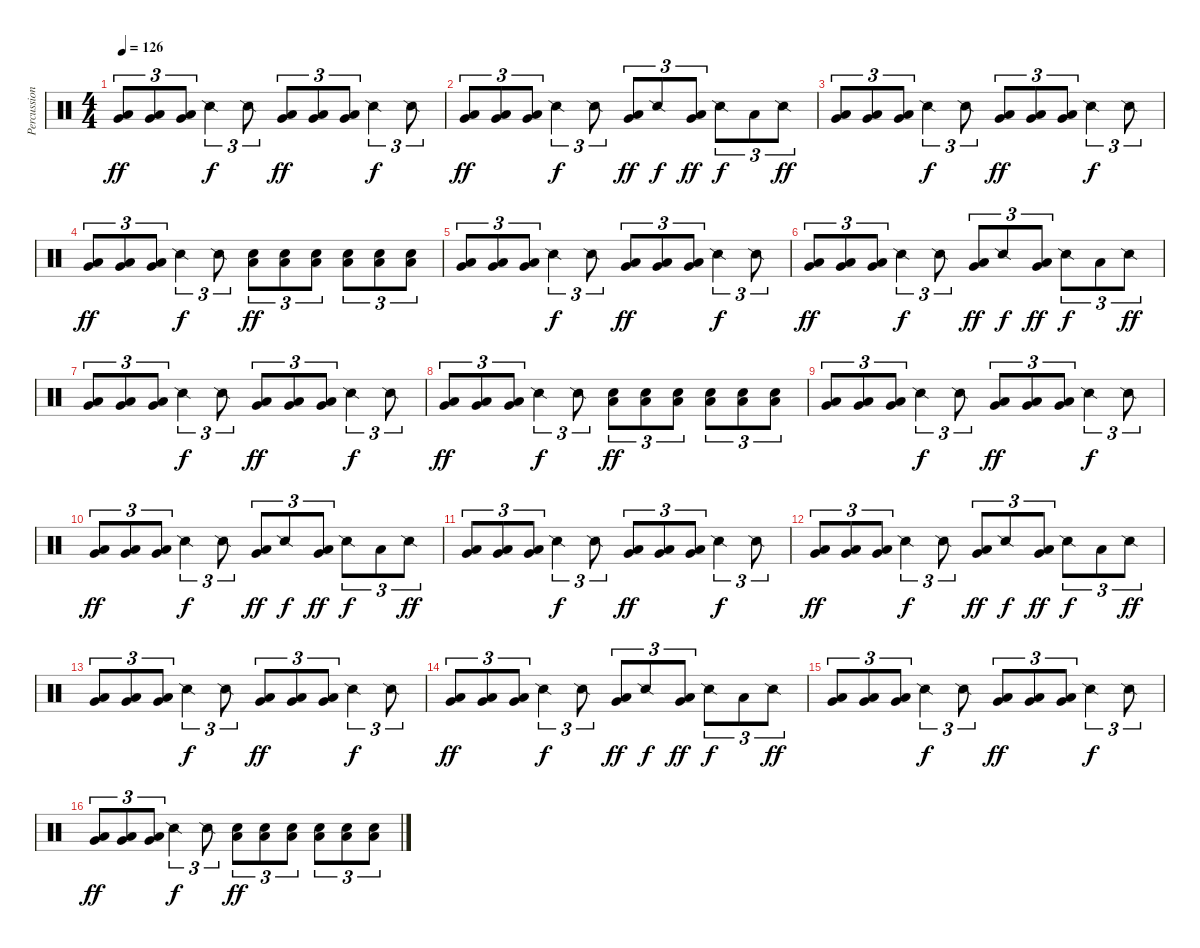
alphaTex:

\track ("Percussion" "Percussion") {instrument percussion}
\staff {score}
\articulation defaults
\ts (4 4)
\tempo 126
\clef neutral
\ks c
("Very Low Tom (hit)" "Low Floor Tom (hit)").8{tu (3 2) dy ff} ("Very Low Tom (hit)" "Low Floor Tom (hit)").8{tu (3 2)} ("Very Low Tom (hit)" "Low Floor Tom (hit)").8{tu (3 2)} "Snare (side stick) 2".4{tu (3 2) dy f} "Snare (side stick) 2".8{tu (3 2)} ("Very Low Tom (hit)" "Low Floor Tom (hit)").8{tu (3 2) dy ff} ("Very Low Tom (hit)" "Low Floor Tom (hit)").8{tu (3 2)} ("Very Low Tom (hit)" "Low Floor Tom (hit)").8{tu (3 2)} "Snare (side stick) 2".4{tu (3 2) dy f} "Snare (side stick) 2".8{tu (3 2)} |
("Very Low Tom (hit)" "Low Floor Tom (hit)").8{tu (3 2) dy ff} ("Very Low Tom (hit)" "Low Floor Tom (hit)").8{tu (3 2)} ("Very Low Tom (hit)" "Low Floor Tom (hit)").8{tu (3 2)} "Snare (side stick) 2".4{tu (3 2) dy f} "Snare (side stick) 2".8{tu (3 2)} ("Very Low Tom (hit)" "Low Floor Tom (hit)").8{tu (3 2) dy ff} "Snare (side stick) 2".8{tu (3 2) dy f} ("Very Low Tom (hit)" "Low Floor Tom (hit)").8{tu (3 2) dy ff} "Snare (side stick) 2".8{tu (3 2) dy f} "Low Floor Tom (hit)".8{tu (3 2)} "Snare (side stick) 2".8{tu (3 2) dy ff} |
("Very Low Tom (hit)" "Low Floor Tom (hit)").8{tu (3 2)} ("Very Low Tom (hit)" "Low Floor Tom (hit)").8{tu (3 2)} ("Very Low Tom (hit)" "Low Floor Tom (hit)").8{tu (3 2)} "Snare (side stick) 2".4{tu (3 2) dy f} "Snare (side stick) 2".8{tu (3 2)} ("Very Low Tom (hit)" "Low Floor Tom (hit)").8{tu (3 2) dy ff} ("Very Low Tom (hit)" "Low Floor Tom (hit)").8{tu (3 2)} ("Very Low Tom (hit)" "Low Floor Tom (hit)").8{tu (3 2)} "Snare (side stick) 2".4{tu (3 2) dy f} "Snare (side stick) 2".8{tu (3 2)} |
("Very Low Tom (hit)" "Low Floor Tom (hit)").8{tu (3 2) dy ff} ("Very Low Tom (hit)" "Low Floor Tom (hit)").8{tu (3 2)} ("Very Low Tom (hit)" "Low Floor Tom (hit)").8{tu (3 2)} "Snare (side stick) 2".4{tu (3 2) dy f} "Snare (side stick) 2".8{tu (3 2)} ("Electric Snare (hit)" "Low Floor Tom (hit)").8{tu (3 2) dy ff} ("Electric Snare (hit)" "Low Floor Tom (hit)").8{tu (3 2)} ("Electric Snare (hit)" "Low Floor Tom (hit)").8{tu (3 2)} ("Electric Snare (hit)" "Low Floor Tom (hit)").8{tu (3 2)} ("Electric Snare (hit)" "Low Floor Tom (hit)").8{tu (3 2)} ("Electric Snare (hit)" "Low Floor Tom (hit)").8{tu (3 2)} |
("Very Low Tom (hit)" "Low Floor Tom (hit)").8{tu (3 2)} ("Very Low Tom (hit)" "Low Floor Tom (hit)").8{tu (3 2)} ("Very Low Tom (hit)" "Low Floor Tom (hit)").8{tu (3 2)} "Snare (side stick) 2".4{tu (3 2) dy f} "Snare (side stick) 2".8{tu (3 2)} ("Very Low Tom (hit)" "Low Floor Tom (hit)").8{tu (3 2) dy ff} ("Very Low Tom (hit)" "Low Floor Tom (hit)").8{tu (3 2)} ("Very Low Tom (hit)" "Low Floor Tom (hit)").8{tu (3 2)} "Snare (side stick) 2".4{tu (3 2) dy f} "Snare (side stick) 2".8{tu (3 2)} |
("Very Low Tom (hit)" "Low Floor Tom (hit)").8{tu (3 2) dy ff} ("Very Low Tom (hit)" "Low Floor Tom (hit)").8{tu (3 2)} ("Very Low Tom (hit)" "Low Floor Tom (hit)").8{tu (3 2)} "Snare (side stick) 2".4{tu (3 2) dy f} "Snare (side stick) 2".8{tu (3 2)} ("Very Low Tom (hit)" "Low Floor Tom (hit)").8{tu (3 2) dy ff} "Snare (side stick) 2".8{tu (3 2) dy f} ("Very Low Tom (hit)" "Low Floor Tom (hit)").8{tu (3 2) dy ff} "Snare (side stick) 2".8{tu (3 2) dy f} "Low Floor Tom (hit)".8{tu (3 2)} "Snare (side stick) 2".8{tu (3 2) dy ff} |
("Very Low Tom (hit)" "Low Floor Tom (hit)").8{tu (3 2)} ("Very Low Tom (hit)" "Low Floor Tom (hit)").8{tu (3 2)} ("Very Low Tom (hit)" "Low Floor Tom (hit)").8{tu (3 2)} "Snare (side stick) 2".4{tu (3 2) dy f} "Snare (side stick) 2".8{tu (3 2)} ("Very Low Tom (hit)" "Low Floor Tom (hit)").8{tu (3 2) dy ff} ("Very Low Tom (hit)" "Low Floor Tom (hit)").8{tu (3 2)} ("Very Low Tom (hit)" "Low Floor Tom (hit)").8{tu (3 2)} "Snare (side stick) 2".4{tu (3 2) dy f} "Snare (side stick) 2".8{tu (3 2)} |
("Very Low Tom (hit)" "Low Floor Tom (hit)").8{tu (3 2) dy ff} ("Very Low Tom (hit)" "Low Floor Tom (hit)").8{tu (3 2)} ("Very Low Tom (hit)" "Low Floor Tom (hit)").8{tu (3 2)} "Snare (side stick) 2".4{tu (3 2) dy f} "Snare (side stick) 2".8{tu (3 2)} ("Electric Snare (hit)" "Low Floor Tom (hit)").8{tu (3 2) dy ff} ("Electric Snare (hit)" "Low Floor Tom (hit)").8{tu (3 2)} ("Electric Snare (hit)" "Low Floor Tom (hit)").8{tu (3 2)} ("Electric Snare (hit)" "Low Floor Tom (hit)").8{tu (3 2)} ("Electric Snare (hit)" "Low Floor Tom (hit)").8{tu (3 2)} ("Electric Snare (hit)" "Low Floor Tom (hit)").8{tu (3 2)} |
("Very Low Tom (hit)" "Low Floor Tom (hit)").8{tu (3 2)} ("Very Low Tom (hit)" "Low Floor Tom (hit)").8{tu (3 2)} ("Very Low Tom (hit)" "Low Floor Tom (hit)").8{tu (3 2)} "Snare (side stick) 2".4{tu (3 2) dy f} "Snare (side stick) 2".8{tu (3 2)} ("Very Low Tom (hit)" "Low Floor Tom (hit)").8{tu (3 2) dy ff} ("Very Low Tom (hit)" "Low Floor Tom (hit)").8{tu (3 2)} ("Very Low Tom (hit)" "Low Floor Tom (hit)").8{tu (3 2)} "Snare (side stick) 2".4{tu (3 2) dy f} "Snare (side stick) 2".8{tu (3 2)} |
("Very Low Tom (hit)" "Low Floor Tom (hit)").8{tu (3 2) dy ff} ("Very Low Tom (hit)" "Low Floor Tom (hit)").8{tu (3 2)} ("Very Low Tom (hit)" "Low Floor Tom (hit)").8{tu (3 2)} "Snare (side stick) 2".4{tu (3 2) dy f} "Snare (side stick) 2".8{tu (3 2)} ("Very Low Tom (hit)" "Low Floor Tom (hit)").8{tu (3 2) dy ff} "Snare (side stick) 2".8{tu (3 2) dy f} ("Very Low Tom (hit)" "Low Floor Tom (hit)").8{tu (3 2) dy ff} "Snare (side stick) 2".8{tu (3 2) dy f} "Low Floor Tom (hit)".8{tu (3 2)} "Snare (side stick) 2".8{tu (3 2) dy ff} |
("Very Low Tom (hit)" "Low Floor Tom (hit)").8{tu (3 2)} ("Very Low Tom (hit)" "Low Floor Tom (hit)").8{tu (3 2)} ("Very Low Tom (hit)" "Low Floor Tom (hit)").8{tu (3 2)} "Snare (side stick) 2".4{tu (3 2) dy f} "Snare (side stick) 2".8{tu (3 2)} ("Very Low Tom (hit)" "Low Floor Tom (hit)").8{tu (3 2) dy ff} ("Very Low Tom (hit)" "Low Floor Tom (hit)").8{tu (3 2)} ("Very Low Tom (hit)" "Low Floor Tom (hit)").8{tu (3 2)} "Snare (side stick) 2".4{tu (3 2) dy f} "Snare (side stick) 2".8{tu (3 2)} |
("Very Low Tom (hit)" "Low Floor Tom (hit)").8{tu (3 2) dy ff} ("Very Low Tom (hit)" "Low Floor Tom (hit)").8{tu (3 2)} ("Very Low Tom (hit)" "Low Floor Tom (hit)").8{tu (3 2)} "Snare (side stick) 2".4{tu (3 2) dy f} "Snare (side stick) 2".8{tu (3 2)} ("Very Low Tom (hit)" "Low Floor Tom (hit)").8{tu (3 2) dy ff} "Snare (side stick) 2".8{tu (3 2) dy f} ("Very Low Tom (hit)" "Low Floor Tom (hit)").8{tu (3 2) dy ff} "Snare (side stick) 2".8{tu (3 2) dy f} "Low Floor Tom (hit)".8{tu (3 2)} "Snare (side stick) 2".8{tu (3 2) dy ff} |
("Very Low Tom (hit)" "Low Floor Tom (hit)").8{tu (3 2)} ("Very Low Tom (hit)" "Low Floor Tom (hit)").8{tu (3 2)} ("Very Low Tom (hit)" "Low Floor Tom (hit)").8{tu (3 2)} "Snare (side stick) 2".4{tu (3 2) dy f} "Snare (side stick) 2".8{tu (3 2)} ("Very Low Tom (hit)" "Low Floor Tom (hit)").8{tu (3 2) dy ff} ("Very Low Tom (hit)" "Low Floor Tom (hit)").8{tu (3 2)} ("Very Low Tom (hit)" "Low Floor Tom (hit)").8{tu (3 2)} "Snare (side stick) 2".4{tu (3 2) dy f} "Snare (side stick) 2".8{tu (3 2)} |
("Very Low Tom (hit)" "Low Floor Tom (hit)").8{tu (3 2) dy ff} ("Very Low Tom (hit)" "Low Floor Tom (hit)").8{tu (3 2)} ("Very Low Tom (hit)" "Low Floor Tom (hit)").8{tu (3 2)} "Snare (side stick) 2".4{tu (3 2) dy f} "Snare (side stick) 2".8{tu (3 2)} ("Very Low Tom (hit)" "Low Floor Tom (hit)").8{tu (3 2) dy ff} "Snare (side stick) 2".8{tu (3 2) dy f} ("Very Low Tom (hit)" "Low Floor Tom (hit)").8{tu (3 2) dy ff} "Snare (side stick) 2".8{tu (3 2) dy f} "Low Floor Tom (hit)".8{tu (3 2)} "Snare (side stick) 2".8{tu (3 2) dy ff} |
("Very Low Tom (hit)" "Low Floor Tom (hit)").8{tu (3 2)} ("Very Low Tom (hit)" "Low Floor Tom (hit)").8{tu (3 2)} ("Very Low Tom (hit)" "Low Floor Tom (hit)").8{tu (3 2)} "Snare (side stick) 2".4{tu (3 2) dy f} "Snare (side stick) 2".8{tu (3 2)} ("Very Low Tom (hit)" "Low Floor Tom (hit)").8{tu (3 2) dy ff} ("Very Low Tom (hit)" "Low Floor Tom (hit)").8{tu (3 2)} ("Very Low Tom (hit)" "Low Floor Tom (hit)").8{tu (3 2)} "Snare (side stick) 2".4{tu (3 2) dy f} "Snare (side stick) 2".8{tu (3 2)} |
("Very Low Tom (hit)" "Low Floor Tom (hit)").8{tu (3 2) dy ff} ("Very Low Tom (hit)" "Low Floor Tom (hit)").8{tu (3 2)} ("Very Low Tom (hit)" "Low Floor Tom (hit)").8{tu (3 2)} "Snare (side stick) 2".4{tu (3 2) dy f} "Snare (side stick) 2".8{tu (3 2)} ("Electric Snare (hit)" "Low Floor Tom (hit)").8{tu (3 2) dy ff} ("Electric Snare (hit)" "Low Floor Tom (hit)").8{tu (3 2)} ("Electric Snare (hit)" "Low Floor Tom (hit)").8{tu (3 2)} ("Electric Snare (hit)" "Low Floor Tom (hit)").8{tu (3 2)} ("Electric Snare (hit)" "Low Floor Tom (hit)").8{tu (3 2)} ("Electric Snare (hit)" "Low Floor Tom (hit)").8{tu (3 2)}
